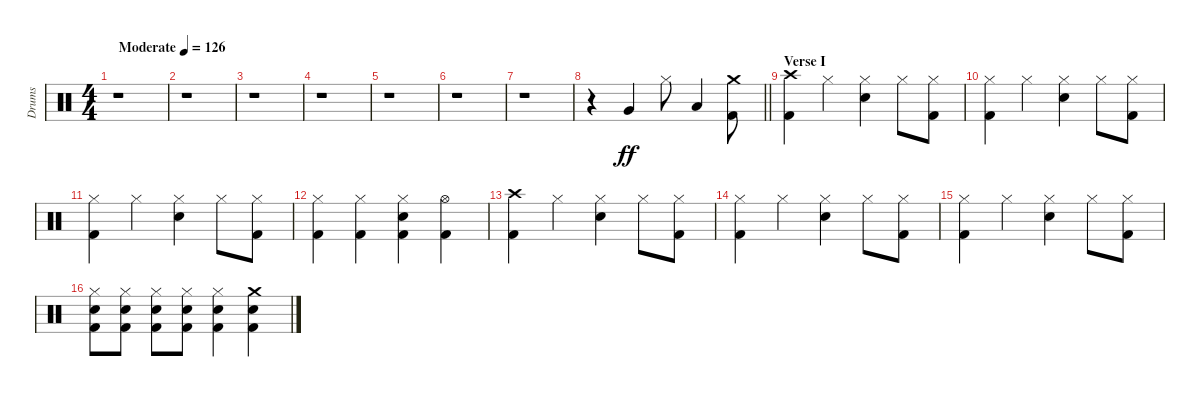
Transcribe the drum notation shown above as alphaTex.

\track ("Drums" "Drums") {instrument percussion}
\staff {score}
\articulation defaults
\ts (4 4)
\tempo (126 "Moderate")
\clef neutral
\ks c
r.1{dy ff} |
r.1 |
r.1 |
r.1 |
r.1 |
r.1 |
r.1 |
\barLineRight lightlight
r.4 "Very Low Tom (hit)".4 "Hi-Hat (closed)".8 "Low Floor Tom (hit)".4 ("Crash medium (hit)" "Kick (hit) 2").8 |
\section ("" "Verse I")
("Crash high (hit)" "Kick (hit) 2").4 "Hi-Hat (closed)".4 ("Hi-Hat (closed)" "Snare (hit) 2").4 "Hi-Hat (closed)".8 ("Hi-Hat (closed)" "Kick (hit) 2").8 |
("Hi-Hat (closed)" "Kick (hit) 2").4 "Hi-Hat (closed)".4 ("Hi-Hat (closed)" "Snare (hit) 2").4 "Hi-Hat (closed)".8 ("Hi-Hat (closed)" "Kick (hit) 2").8 |
("Hi-Hat (closed)" "Kick (hit) 2").4 "Hi-Hat (closed)".4 ("Hi-Hat (closed)" "Snare (hit) 2").4 "Hi-Hat (closed)".8 ("Hi-Hat (closed)" "Kick (hit) 2").8 |
("Hi-Hat (closed)" "Kick (hit) 2").4 ("Hi-Hat (closed)" "Kick (hit) 2").4 ("Hi-Hat (closed)" "Snare (hit) 2" "Kick (hit) 2").4 ("Hi-Hat (open)" "Kick (hit) 2").4 |
("Crash high (hit)" "Kick (hit) 2").4 "Hi-Hat (closed)".4 ("Hi-Hat (closed)" "Snare (hit) 2").4 "Hi-Hat (closed)".8 ("Hi-Hat (closed)" "Kick (hit) 2").8 |
("Hi-Hat (closed)" "Kick (hit) 2").4 "Hi-Hat (closed)".4 ("Hi-Hat (closed)" "Snare (hit) 2").4 "Hi-Hat (closed)".8 ("Hi-Hat (closed)" "Kick (hit) 2").8 |
("Hi-Hat (closed)" "Kick (hit) 2").4 "Hi-Hat (closed)".4 ("Hi-Hat (closed)" "Snare (hit) 2").4 "Hi-Hat (closed)".8 ("Hi-Hat (closed)" "Kick (hit) 2").8 |
("Hi-Hat (closed)" "Snare (hit) 2" "Kick (hit) 2").8 ("Hi-Hat (closed)" "Snare (hit) 2" "Kick (hit) 2").8 ("Hi-Hat (closed)" "Snare (hit) 2" "Kick (hit) 2").8 ("Hi-Hat (closed)" "Snare (hit) 2" "Kick (hit) 2").8 ("Hi-Hat (closed)" "Snare (hit) 2" "Kick (hit) 2").4 ("Crash medium (hit)" "Snare (hit) 2" "Kick (hit) 2").4
